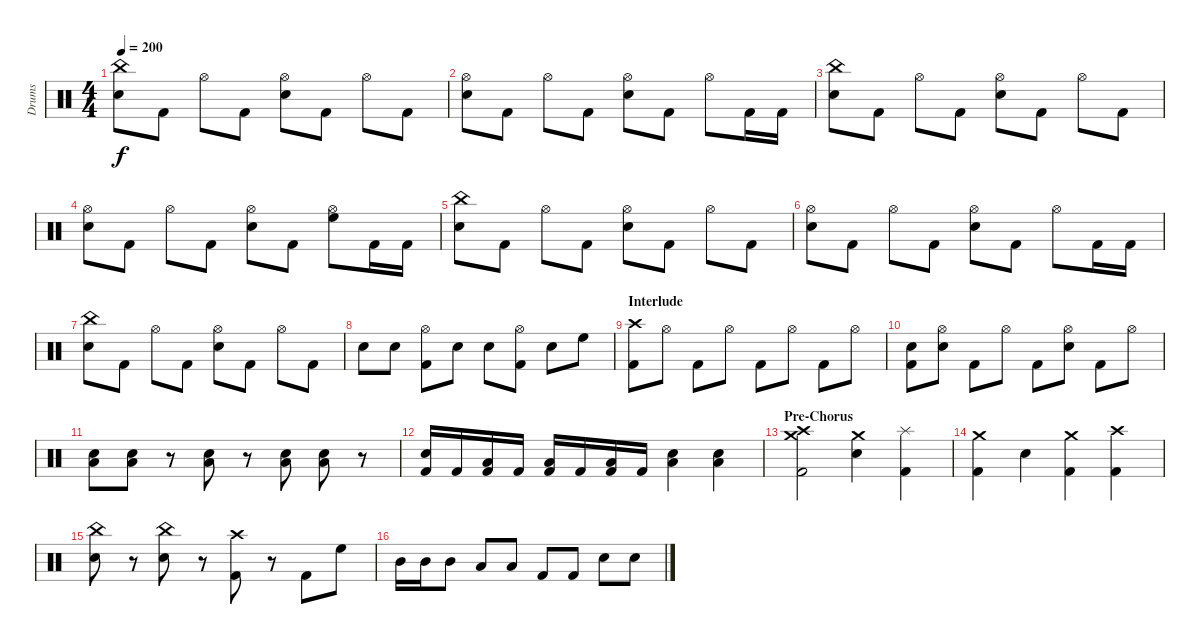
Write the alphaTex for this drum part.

\track ("Drums" "Drums") {instrument percussion}
\staff {score}
\articulation defaults
\ts (4 4)
\tempo 200
\clef neutral
\ks c
("China (hit)" "Electric Snare (hit)").8{dy f} "Kick (hit) 2".8 "Hi-Hat (open)".8 "Kick (hit) 2".8 ("Hi-Hat (open)" "Electric Snare (hit)").8 "Kick (hit) 2".8 "Hi-Hat (open)".8 "Kick (hit) 2".8 |
("Hi-Hat (open)" "Electric Snare (hit)").8 "Kick (hit) 2".8 "Hi-Hat (open)".8 "Kick (hit) 2".8 ("Hi-Hat (open)" "Electric Snare (hit)").8 "Kick (hit) 2".8 "Hi-Hat (open)".8 "Kick (hit) 2".16 "Kick (hit) 2".16 |
("China (hit)" "Electric Snare (hit)").8 "Kick (hit) 2".8 "Hi-Hat (open)".8 "Kick (hit) 2".8 ("Hi-Hat (open)" "Electric Snare (hit)").8 "Kick (hit) 2".8 "Hi-Hat (open)".8 "Kick (hit) 2".8 |
("Hi-Hat (open)" "Electric Snare (hit)").8 "Kick (hit) 2".8 "Hi-Hat (open)".8 "Kick (hit) 2".8 ("Hi-Hat (open)" "Electric Snare (hit)").8 "Kick (hit) 2".8 ("Hi-Hat (open)" "High Floor Tom (hit)").8 "Kick (hit) 2".16 "Kick (hit) 2".16 |
("China (hit)" "Electric Snare (hit)").8 "Kick (hit) 2".8 "Hi-Hat (open)".8 "Kick (hit) 2".8 ("Hi-Hat (open)" "Electric Snare (hit)").8 "Kick (hit) 2".8 "Hi-Hat (open)".8 "Kick (hit) 2".8 |
("Hi-Hat (open)" "Electric Snare (hit)").8 "Kick (hit) 2".8 "Hi-Hat (open)".8 "Kick (hit) 2".8 ("Hi-Hat (open)" "Electric Snare (hit)").8 "Kick (hit) 2".8 "Hi-Hat (open)".8 "Kick (hit) 2".16 "Kick (hit) 2".16 |
("China (hit)" "Electric Snare (hit)").8 "Kick (hit) 2".8 "Hi-Hat (open)".8 "Kick (hit) 2".8 ("Hi-Hat (open)" "Electric Snare (hit)").8 "Kick (hit) 2".8 "Hi-Hat (open)".8 "Kick (hit) 2".8 |
"Electric Snare (hit)".8 "Electric Snare (hit)".8 ("Hi-Hat (open)" "Kick (hit) 2").8 "Electric Snare (hit)".8 "Electric Snare (hit)".8 ("Hi-Hat (open)" "Kick (hit) 2").8 "Electric Snare (hit)".8 "High Floor Tom (hit)".8 |
\section ("" "Interlude")
("Crash high (hit)" "Kick (hit) 2").8 "Hi-Hat (open)".8 "Kick (hit) 2".8 "Hi-Hat (open)".8 "Kick (hit) 2".8 "Hi-Hat (open)".8 "Kick (hit) 2".8 "Hi-Hat (open)".8 |
("Electric Snare (hit)" "Kick (hit) 2").8 ("Hi-Hat (open)" "Electric Snare (hit)").8 "Kick (hit) 2".8 "Hi-Hat (open)".8 "Kick (hit) 2".8 ("Hi-Hat (open)" "Electric Snare (hit)").8 "Kick (hit) 2".8 "Hi-Hat (open)".8 |
("Electric Snare (hit)" "Low Tom (hit)").8 ("Electric Snare (hit)" "Low Tom (hit)").8 r.8 ("Electric Snare (hit)" "Low Tom (hit)").8 r.8 ("Electric Snare (hit)" "Low Tom (hit)").8 ("Electric Snare (hit)" "Low Tom (hit)").8 r.8 |
("Electric Snare (hit)" "Kick (hit) 2").16 "Kick (hit) 2".16 ("Low Tom (hit)" "Kick (hit) 2").16 "Kick (hit) 2".16 ("Low Tom (hit)" "Kick (hit) 2").16 "Kick (hit) 2".16 ("Low Tom (hit)" "Kick (hit) 2").16 "Kick (hit) 2".16 ("Electric Snare (hit)" "Low Tom (hit)").4 ("Electric Snare (hit)" "Low Tom (hit)").4 |
\section ("" "Pre-Chorus")
("Crash medium (hit)" "Crash high (hit)" "Kick (hit) 2").2 ("Crash medium (hit)" "Electric Snare (hit)").4 ("Splash (hit)" "Kick (hit) 2").4 |
("Crash medium (hit)" "Kick (hit) 2").4 "Electric Snare (hit)".4 ("Crash medium (hit)" "Kick (hit) 2").4 ("Crash high (hit)" "Kick (hit) 2").4 |
("China (hit)" "Electric Snare (hit)").8 r.8 ("China (hit)" "Electric Snare (hit)").8 r.8 ("Crash high (hit)" "Kick (hit) 2").8 r.8 "Kick (hit) 2".8 "High Floor Tom (hit)".8 |
"Mid Tom (hit)".16 "Mid Tom (hit)".16 "Mid Tom (hit)".8 "Low Tom (hit)".8 "Low Tom (hit)".8 "Kick (hit) 2".8 "Kick (hit) 2".8 "Electric Snare (hit)".8 "Electric Snare (hit)".8
